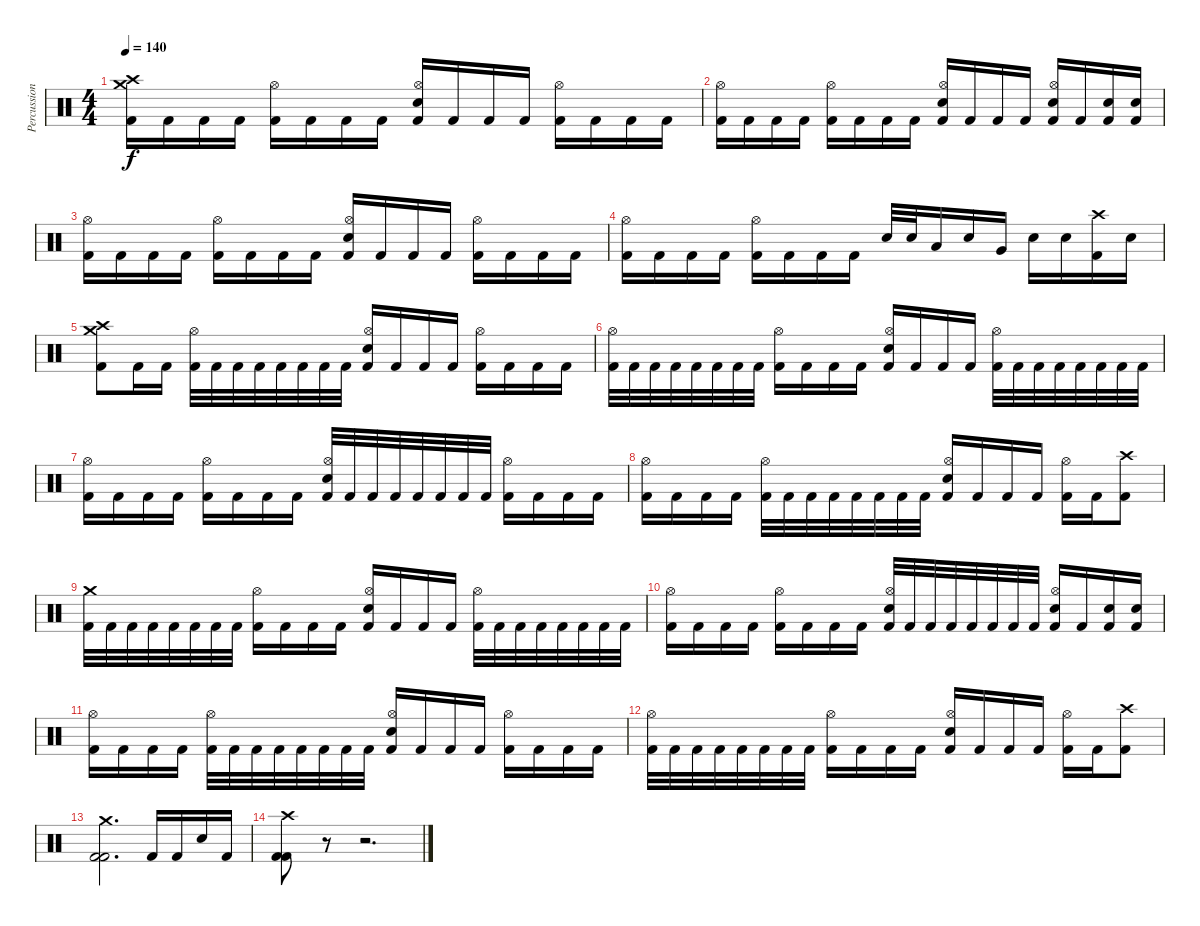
\track ("Percussion" "Percussion") {instrument percussion}
\staff {score}
\articulation defaults
\ts (4 4)
\tempo 140
\clef neutral
\ks c
("Crash medium (hit)" "Crash high (hit)" "Kick (hit) 2").16{dy f} "Kick (hit) 2".16 "Kick (hit) 2".16 "Kick (hit) 2".16 ("Hi-Hat (open)" "Kick (hit) 2").16 "Kick (hit) 2".16 "Kick (hit) 2".16 "Kick (hit) 2".16 ("Hi-Hat (open)" "Electric Snare (hit)" "Kick (hit) 2").16 "Kick (hit) 2".16 "Kick (hit) 2".16 "Kick (hit) 2".16 ("Hi-Hat (open)" "Kick (hit) 2").16 "Kick (hit) 2".16 "Kick (hit) 2".16 "Kick (hit) 2".16 |
("Hi-Hat (open)" "Kick (hit) 2").16 "Kick (hit) 2".16 "Kick (hit) 2".16 "Kick (hit) 2".16 ("Hi-Hat (open)" "Kick (hit) 2").16 "Kick (hit) 2".16 "Kick (hit) 2".16 "Kick (hit) 2".16 ("Hi-Hat (open)" "Electric Snare (hit)" "Kick (hit) 2").16 "Kick (hit) 2".16 "Kick (hit) 2".16 "Kick (hit) 2".16 ("Hi-Hat (open)" "Electric Snare (hit)" "Kick (hit) 2").16 "Kick (hit) 2".16 ("Electric Snare (hit)" "Kick (hit) 2").16 ("Electric Snare (hit)" "Kick (hit) 2").16 |
("Hi-Hat (open)" "Kick (hit) 2").16 "Kick (hit) 2".16 "Kick (hit) 2".16 "Kick (hit) 2".16 ("Hi-Hat (open)" "Kick (hit) 2").16 "Kick (hit) 2".16 "Kick (hit) 2".16 "Kick (hit) 2".16 ("Hi-Hat (open)" "Electric Snare (hit)" "Kick (hit) 2").16 "Kick (hit) 2".16 "Kick (hit) 2".16 "Kick (hit) 2".16 ("Hi-Hat (open)" "Kick (hit) 2").16 "Kick (hit) 2".16 "Kick (hit) 2".16 "Kick (hit) 2".16 |
("Hi-Hat (open)" "Kick (hit) 2").16 "Kick (hit) 2".16 "Kick (hit) 2".16 "Kick (hit) 2".16 ("Hi-Hat (open)" "Kick (hit) 2").16 "Kick (hit) 2".16 "Kick (hit) 2".16 "Kick (hit) 2".16 "Electric Snare (hit)".32 "Electric Snare (hit)".32 "Low Tom (hit)".16 "Electric Snare (hit)".16 "Very Low Tom (hit)".16 "Electric Snare (hit)".16 "Electric Snare (hit)".16 ("Crash high (hit)" "Kick (hit) 2").16 "Electric Snare (hit)".16 |
("Crash medium (hit)" "Crash high (hit)" "Kick (hit) 2").8 "Kick (hit) 2".16 "Kick (hit) 2".16 ("Hi-Hat (open)" "Kick (hit) 2").32 "Kick (hit) 2".32 "Kick (hit) 2".32 "Kick (hit) 2".32 "Kick (hit) 2".32 "Kick (hit) 2".32 "Kick (hit) 2".32 "Kick (hit) 2".32 ("Hi-Hat (open)" "Electric Snare (hit)" "Kick (hit) 2").16 "Kick (hit) 2".16 "Kick (hit) 2".16 "Kick (hit) 2".16 ("Hi-Hat (open)" "Kick (hit) 2").16 "Kick (hit) 2".16 "Kick (hit) 2".16 "Kick (hit) 2".16 |
("Hi-Hat (open)" "Kick (hit) 2").32 "Kick (hit) 2".32 "Kick (hit) 2".32 "Kick (hit) 2".32 "Kick (hit) 2".32 "Kick (hit) 2".32 "Kick (hit) 2".32 "Kick (hit) 2".32 ("Hi-Hat (open)" "Kick (hit) 2").16 "Kick (hit) 2".16 "Kick (hit) 2".16 "Kick (hit) 2".16 ("Hi-Hat (open)" "Electric Snare (hit)" "Kick (hit) 2").16 "Kick (hit) 2".16 "Kick (hit) 2".16 "Kick (hit) 2".16 ("Hi-Hat (open)" "Kick (hit) 2").32 "Kick (hit) 2".32 "Kick (hit) 2".32 "Kick (hit) 2".32 "Kick (hit) 2".32 "Kick (hit) 2".32 "Kick (hit) 2".32 "Kick (hit) 2".32 |
("Hi-Hat (open)" "Kick (hit) 2").16 "Kick (hit) 2".16 "Kick (hit) 2".16 "Kick (hit) 2".16 ("Hi-Hat (open)" "Kick (hit) 2").16 "Kick (hit) 2".16 "Kick (hit) 2".16 "Kick (hit) 2".16 ("Hi-Hat (open)" "Electric Snare (hit)" "Kick (hit) 2").32 "Kick (hit) 2".32 "Kick (hit) 2".32 "Kick (hit) 2".32 "Kick (hit) 2".32 "Kick (hit) 2".32 "Kick (hit) 2".32 "Kick (hit) 2".32 ("Hi-Hat (open)" "Kick (hit) 2").16 "Kick (hit) 2".16 "Kick (hit) 2".16 "Kick (hit) 2".16 |
("Hi-Hat (open)" "Kick (hit) 2").16 "Kick (hit) 2".16 "Kick (hit) 2".16 "Kick (hit) 2".16 ("Hi-Hat (open)" "Kick (hit) 2").32 "Kick (hit) 2".32 "Kick (hit) 2".32 "Kick (hit) 2".32 "Kick (hit) 2".32 "Kick (hit) 2".32 "Kick (hit) 2".32 "Kick (hit) 2".32 ("Hi-Hat (open)" "Electric Snare (hit)" "Kick (hit) 2").16 "Kick (hit) 2".16 "Kick (hit) 2".16 "Kick (hit) 2".16 ("Hi-Hat (open)" "Kick (hit) 2").16 "Kick (hit) 2".16 ("Crash high (hit)" "Kick (hit) 2").8 |
("Crash medium (hit)" "Kick (hit) 2").32 "Kick (hit) 2".32 "Kick (hit) 2".32 "Kick (hit) 2".32 "Kick (hit) 2".32 "Kick (hit) 2".32 "Kick (hit) 2".32 "Kick (hit) 2".32 ("Hi-Hat (open)" "Kick (hit) 2").16 "Kick (hit) 2".16 "Kick (hit) 2".16 "Kick (hit) 2".16 ("Hi-Hat (open)" "Electric Snare (hit)" "Kick (hit) 2").16 "Kick (hit) 2".16 "Kick (hit) 2".16 "Kick (hit) 2".16 ("Hi-Hat (open)" "Kick (hit) 2").32 "Kick (hit) 2".32 "Kick (hit) 2".32 "Kick (hit) 2".32 "Kick (hit) 2".32 "Kick (hit) 2".32 "Kick (hit) 2".32 "Kick (hit) 2".32 |
("Hi-Hat (open)" "Kick (hit) 2").16 "Kick (hit) 2".16 "Kick (hit) 2".16 "Kick (hit) 2".16 ("Hi-Hat (open)" "Kick (hit) 2").16 "Kick (hit) 2".16 "Kick (hit) 2".16 "Kick (hit) 2".16 ("Hi-Hat (open)" "Electric Snare (hit)" "Kick (hit) 2").32 "Kick (hit) 2".32 "Kick (hit) 2".32 "Kick (hit) 2".32 "Kick (hit) 2".32 "Kick (hit) 2".32 "Kick (hit) 2".32 "Kick (hit) 2".32 ("Hi-Hat (open)" "Electric Snare (hit)" "Kick (hit) 2").16 "Kick (hit) 2".16 ("Electric Snare (hit)" "Kick (hit) 2").16 ("Electric Snare (hit)" "Kick (hit) 2").16 |
("Hi-Hat (open)" "Kick (hit) 2").16 "Kick (hit) 2".16 "Kick (hit) 2".16 "Kick (hit) 2".16 ("Hi-Hat (open)" "Kick (hit) 2").32 "Kick (hit) 2".32 "Kick (hit) 2".32 "Kick (hit) 2".32 "Kick (hit) 2".32 "Kick (hit) 2".32 "Kick (hit) 2".32 "Kick (hit) 2".32 ("Hi-Hat (open)" "Electric Snare (hit)" "Kick (hit) 2").16 "Kick (hit) 2".16 "Kick (hit) 2".16 "Kick (hit) 2".16 ("Hi-Hat (open)" "Kick (hit) 2").16 "Kick (hit) 2".16 "Kick (hit) 2".16 "Kick (hit) 2".16 |
("Hi-Hat (open)" "Kick (hit) 2").32 "Kick (hit) 2".32 "Kick (hit) 2".32 "Kick (hit) 2".32 "Kick (hit) 2".32 "Kick (hit) 2".32 "Kick (hit) 2".32 "Kick (hit) 2".32 ("Hi-Hat (open)" "Kick (hit) 2").16 "Kick (hit) 2".16 "Kick (hit) 2".16 "Kick (hit) 2".16 ("Hi-Hat (open)" "Electric Snare (hit)" "Kick (hit) 2").16 "Kick (hit) 2".16 "Kick (hit) 2".16 "Kick (hit) 2".16 ("Hi-Hat (open)" "Kick (hit) 2").16 "Kick (hit) 2".16 ("Crash high (hit)" "Kick (hit) 2").8 |
("Crash medium (hit)" "Kick (hit) 2" "Kick (hit) 2").2{d} "Kick (hit) 2".16 "Kick (hit) 2".16 "Electric Snare (hit)".16 "Kick (hit) 2".16 |
("Crash high (hit)" "Kick (hit) 2" "Kick (hit) 2").8 r.8 r.2{d}
